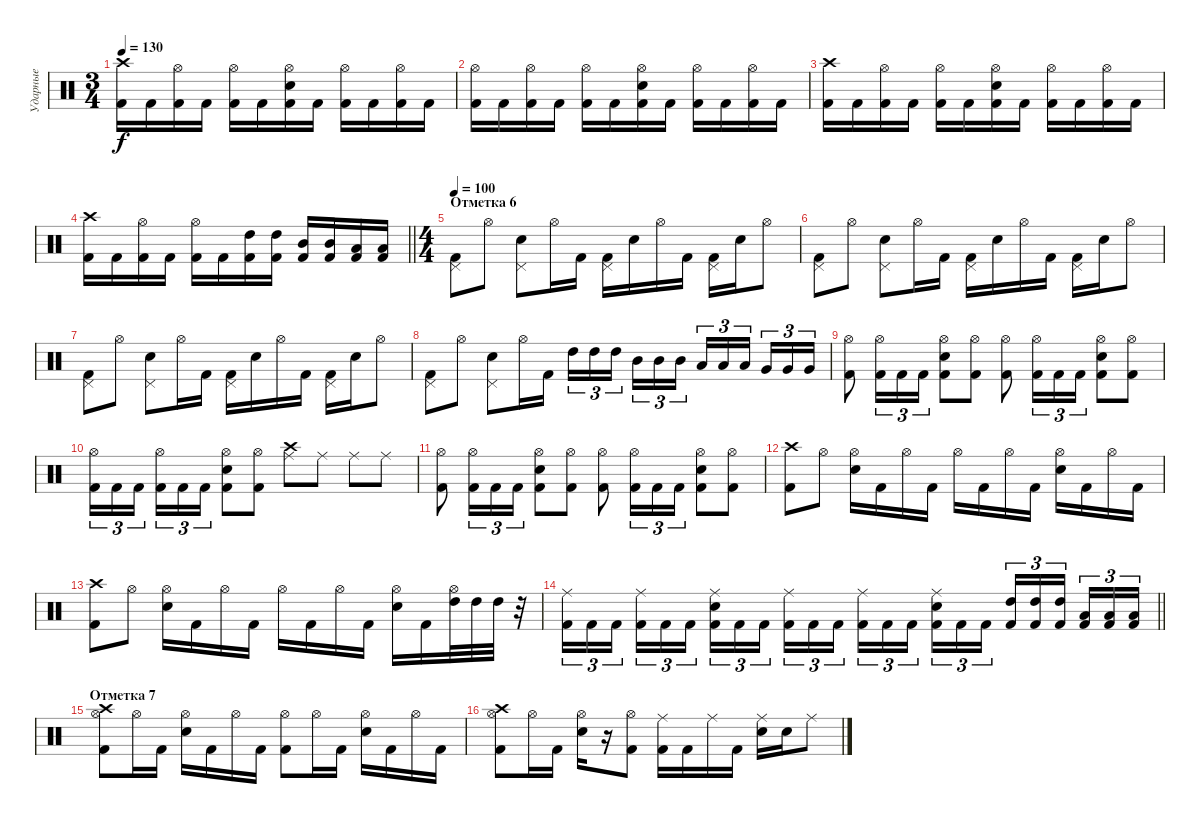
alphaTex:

\track ("Ударные" "Ударные") {instrument percussion}
\staff {score}
\articulation defaults
\ts (3 4)
\tempo 130
\clef neutral
\ks c
("Kick (hit) 2" "Crash high (hit)").16{dy f} "Kick (hit) 2".16 ("Kick (hit) 2" "Hi-Hat (open)").16 "Kick (hit) 2".16 ("Kick (hit) 2" "Hi-Hat (open)").16 "Kick (hit) 2".16 ("Kick (hit) 2" "Electric Snare (hit)" "Hi-Hat (open)").16 "Kick (hit) 2".16 ("Kick (hit) 2" "Hi-Hat (open)").16 "Kick (hit) 2".16 ("Kick (hit) 2" "Hi-Hat (open)").16 "Kick (hit) 2".16 |
("Kick (hit) 2" "Hi-Hat (open)").16 "Kick (hit) 2".16 ("Kick (hit) 2" "Hi-Hat (open)").16 "Kick (hit) 2".16 ("Kick (hit) 2" "Hi-Hat (open)").16 "Kick (hit) 2".16 ("Kick (hit) 2" "Electric Snare (hit)" "Hi-Hat (open)").16 "Kick (hit) 2".16 ("Kick (hit) 2" "Hi-Hat (open)").16 "Kick (hit) 2".16 ("Kick (hit) 2" "Hi-Hat (open)").16 "Kick (hit) 2".16 |
("Kick (hit) 2" "Crash high (hit)").16 "Kick (hit) 2".16 ("Kick (hit) 2" "Hi-Hat (open)").16 "Kick (hit) 2".16 ("Kick (hit) 2" "Hi-Hat (open)").16 "Kick (hit) 2".16 ("Kick (hit) 2" "Electric Snare (hit)" "Hi-Hat (open)").16 "Kick (hit) 2".16 ("Kick (hit) 2" "Hi-Hat (open)").16 "Kick (hit) 2".16 ("Kick (hit) 2" "Hi-Hat (open)").16 "Kick (hit) 2".16 |
\barLineRight lightlight
("Kick (hit) 2" "Crash high (hit)").16 "Kick (hit) 2".16 ("Kick (hit) 2" "Hi-Hat (open)").16 "Kick (hit) 2".16 ("Kick (hit) 2" "Hi-Hat (open)").16 "Kick (hit) 2".16 ("Kick (hit) 2" "High Tom (hit)").16 ("Kick (hit) 2" "High Tom (hit)").16 ("Kick (hit) 2" "Mid Tom (hit)").16 ("Kick (hit) 2" "Mid Tom (hit)").16 ("Kick (hit) 2" "Low Tom (hit)").16 ("Kick (hit) 2" "Low Tom (hit)").16 |
\ts (4 4)
\section ("" "Отметка 6")
\tempo 90
\tempo 100
("Kick (hit) 2" "Pedal Hi-Hat (hit)").8 "Hi-Hat (open)".8 ("Electric Snare (hit)" "Pedal Hi-Hat (hit)").8 "Hi-Hat (open)".16 "Kick (hit) 2".16 ("Kick (hit) 2" "Pedal Hi-Hat (hit)").16 "Electric Snare (hit)".16 "Hi-Hat (open)".16 "Kick (hit) 2".16 ("Kick (hit) 2" "Pedal Hi-Hat (hit)").16 "Electric Snare (hit)".16 "Hi-Hat (open)".8 |
("Kick (hit) 2" "Pedal Hi-Hat (hit)").8 "Hi-Hat (open)".8 ("Electric Snare (hit)" "Pedal Hi-Hat (hit)").8 "Hi-Hat (open)".16 "Kick (hit) 2".16 ("Kick (hit) 2" "Pedal Hi-Hat (hit)").16 "Electric Snare (hit)".16 "Hi-Hat (open)".16 "Kick (hit) 2".16 ("Kick (hit) 2" "Pedal Hi-Hat (hit)").16 "Electric Snare (hit)".16 "Hi-Hat (open)".8 |
("Kick (hit) 2" "Pedal Hi-Hat (hit)").8 "Hi-Hat (open)".8 ("Electric Snare (hit)" "Pedal Hi-Hat (hit)").8 "Hi-Hat (open)".16 "Kick (hit) 2".16 ("Kick (hit) 2" "Pedal Hi-Hat (hit)").16 "Electric Snare (hit)".16 "Hi-Hat (open)".16 "Kick (hit) 2".16 ("Kick (hit) 2" "Pedal Hi-Hat (hit)").16 "Electric Snare (hit)".16 "Hi-Hat (open)".8 |
("Kick (hit) 2" "Pedal Hi-Hat (hit)").8 "Hi-Hat (open)".8 ("Electric Snare (hit)" "Pedal Hi-Hat (hit)").8 "Hi-Hat (open)".16 "Kick (hit) 2".16 "High Tom (hit)".16{tu (3 2)} "High Tom (hit)".16{tu (3 2)} "High Tom (hit)".16{tu (3 2) beam splitsecondary} "Mid Tom (hit)".16{tu (3 2)} "Mid Tom (hit)".16{tu (3 2)} "Mid Tom (hit)".16{tu (3 2)} "Low Tom (hit)".16{tu (3 2)} "Low Tom (hit)".16{tu (3 2)} "Low Tom (hit)".16{tu (3 2) beam splitsecondary} "Very Low Tom (hit)".16{tu (3 2)} "Very Low Tom (hit)".16{tu (3 2)} "Very Low Tom (hit)".16{tu (3 2)} |
("Kick (hit) 2" "Hi-Hat (open)").8 ("Kick (hit) 2" "Hi-Hat (open)").16{tu (3 2)} "Kick (hit) 2".16{tu (3 2)} "Kick (hit) 2".16{tu (3 2)} ("Kick (hit) 2" "Electric Snare (hit)" "Hi-Hat (open)").8 ("Kick (hit) 2" "Hi-Hat (open)").8 ("Kick (hit) 2" "Hi-Hat (open)").8 ("Kick (hit) 2" "Hi-Hat (open)").16{tu (3 2)} "Kick (hit) 2".16{tu (3 2)} "Kick (hit) 2".16{tu (3 2)} ("Kick (hit) 2" "Electric Snare (hit)" "Hi-Hat (open)").8 ("Kick (hit) 2" "Hi-Hat (open)").8 |
("Kick (hit) 2" "Hi-Hat (open)").16{tu (3 2)} "Kick (hit) 2".16{tu (3 2)} "Kick (hit) 2".16{tu (3 2) beam splitsecondary} ("Kick (hit) 2" "Hi-Hat (open)").16{tu (3 2)} "Kick (hit) 2".16{tu (3 2)} "Kick (hit) 2".16{tu (3 2)} ("Kick (hit) 2" "Electric Snare (hit)" "Hi-Hat (open)").8 ("Kick (hit) 2" "Hi-Hat (open)").8 ("Crash high (hit)" "Ride (middle)").8 "Ride (middle)".8 "Ride (middle)".8 "Ride (middle)".8 |
("Kick (hit) 2" "Hi-Hat (open)").8 ("Kick (hit) 2" "Hi-Hat (open)").16{tu (3 2)} "Kick (hit) 2".16{tu (3 2)} "Kick (hit) 2".16{tu (3 2)} ("Kick (hit) 2" "Electric Snare (hit)" "Hi-Hat (open)").8 ("Kick (hit) 2" "Hi-Hat (open)").8 ("Kick (hit) 2" "Hi-Hat (open)").8 ("Kick (hit) 2" "Hi-Hat (open)").16{tu (3 2)} "Kick (hit) 2".16{tu (3 2)} "Kick (hit) 2".16{tu (3 2)} ("Kick (hit) 2" "Electric Snare (hit)" "Hi-Hat (open)").8 ("Kick (hit) 2" "Hi-Hat (open)").8 |
("Kick (hit) 2" "Crash high (hit)").8 "Hi-Hat (open)".8 ("Electric Snare (hit)" "Hi-Hat (open)").16 "Kick (hit) 2".16 "Hi-Hat (open)".16 "Kick (hit) 2".16 "Hi-Hat (open)".16 "Kick (hit) 2".16 "Hi-Hat (open)".16 "Kick (hit) 2".16 ("Electric Snare (hit)" "Hi-Hat (open)").16 "Kick (hit) 2".16 "Hi-Hat (open)".16 "Kick (hit) 2".16 |
("Kick (hit) 2" "Crash high (hit)").8 "Hi-Hat (open)".8 ("Electric Snare (hit)" "Hi-Hat (open)").16 "Kick (hit) 2".16 "Hi-Hat (open)".16 "Kick (hit) 2".16 "Hi-Hat (open)".16 "Kick (hit) 2".16 "Hi-Hat (open)".16 "Kick (hit) 2".16 ("Electric Snare (hit)" "Hi-Hat (open)").16 "Kick (hit) 2".16 ("High Tom (hit)" "Hi-Hat (open)").32 "High Tom (hit)".32 "High Tom (hit)".32 r.32 |
\barLineRight lightlight
("Kick (hit) 2" "Ride (middle)").16{tu (3 2)} "Kick (hit) 2".16{tu (3 2)} "Kick (hit) 2".16{tu (3 2) beam splitsecondary} ("Kick (hit) 2" "Ride (middle)").16{tu (3 2)} "Kick (hit) 2".16{tu (3 2)} "Kick (hit) 2".16{tu (3 2)} ("Kick (hit) 2" "Electric Snare (hit)" "Ride (middle)").16{tu (3 2)} "Kick (hit) 2".16{tu (3 2)} "Kick (hit) 2".16{tu (3 2) beam splitsecondary} ("Kick (hit) 2" "Ride (middle)").16{tu (3 2)} "Kick (hit) 2".16{tu (3 2)} "Kick (hit) 2".16{tu (3 2)} ("Kick (hit) 2" "Ride (middle)").16{tu (3 2)} "Kick (hit) 2".16{tu (3 2)} "Kick (hit) 2".16{tu (3 2) beam splitsecondary} ("Kick (hit) 2" "Electric Snare (hit)" "Ride (middle)").16{tu (3 2)} "Kick (hit) 2".16{tu (3 2)} "Kick (hit) 2".16{tu (3 2)} ("Kick (hit) 2" "High Tom (hit)").16{tu (3 2)} ("Kick (hit) 2" "High Tom (hit)").16{tu (3 2)} ("Kick (hit) 2" "High Tom (hit)").16{tu (3 2) beam splitsecondary} ("Kick (hit) 2" "Low Tom (hit)").16{tu (3 2)} ("Kick (hit) 2" "Low Tom (hit)").16{tu (3 2)} ("Kick (hit) 2" "Low Tom (hit)").16{tu (3 2)} |
\section ("" "Отметка 7")
("Crash high (hit)" "Kick (hit) 2" "Hi-Hat (open)").8 "Hi-Hat (open)".16 "Kick (hit) 2".16 ("Electric Snare (hit)" "Hi-Hat (open)").16 "Kick (hit) 2".16 "Hi-Hat (open)".16 "Kick (hit) 2".16 ("Kick (hit) 2" "Hi-Hat (open)").8 "Hi-Hat (open)".16 "Kick (hit) 2".16 ("Electric Snare (hit)" "Hi-Hat (open)").16 "Kick (hit) 2".16 "Hi-Hat (open)".16 "Kick (hit) 2".16 |
("Crash high (hit)" "Kick (hit) 2" "Hi-Hat (open)").8 "Hi-Hat (open)".16 "Kick (hit) 2".16 ("Electric Snare (hit)" "Hi-Hat (open)").16 r.16 ("Kick (hit) 2" "Hi-Hat (open)").8 ("Kick (hit) 2" "Ride (middle)").16 "Kick (hit) 2".16 "Ride (middle)".16 "Kick (hit) 2".16 ("Electric Snare (hit)" "Ride (middle)").16 "Electric Snare (hit)".16 "Ride (middle)".8
